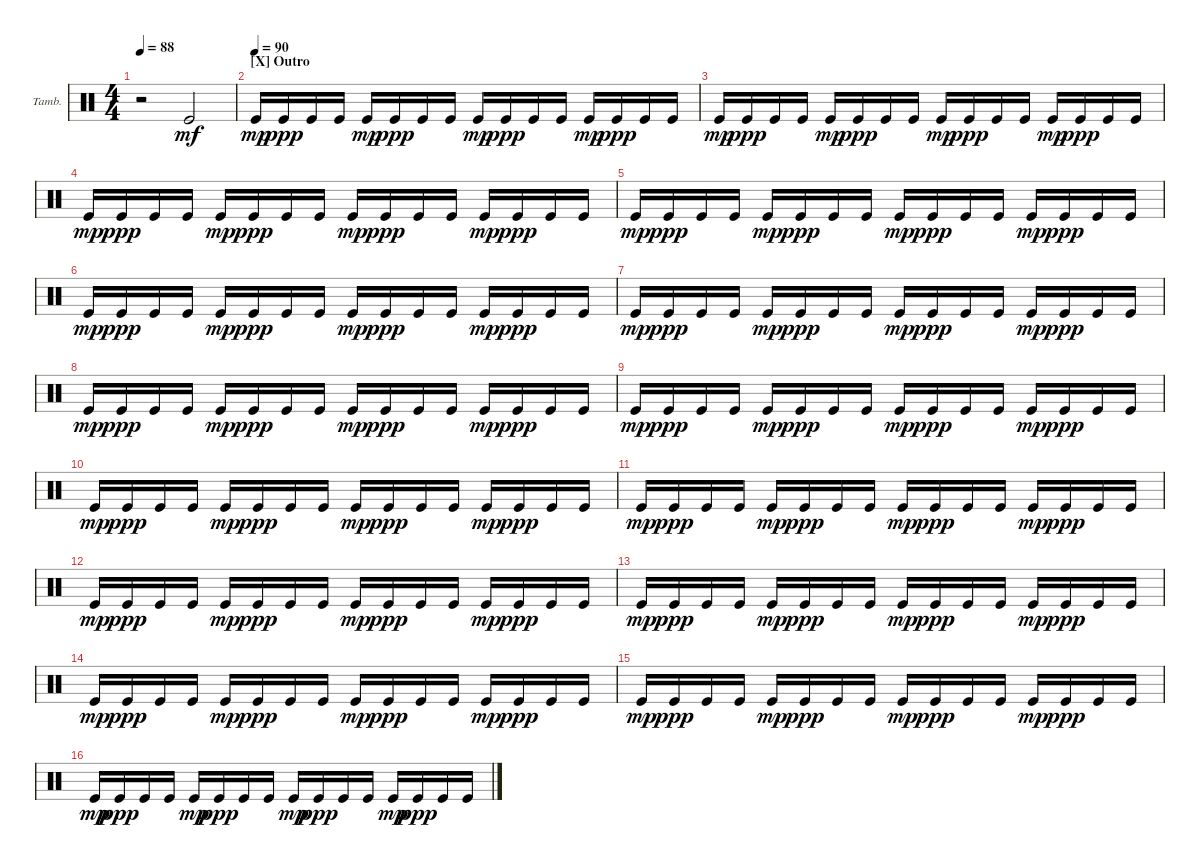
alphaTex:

\defaultSystemsLayout 4
\bracketExtendMode groupsimilarinstruments
\firstSystemTrackNameOrientation horizontal
\otherSystemsTrackNameOrientation horizontal
\track ("Tambourine" "Tamb.") {instrument percussion}
\staff {score}
\articulation defaults
\ts (4 4)
\tempo 88
\clef neutral
\ks c
r.2{dy mf} "Kick (hit)".2 |
\section ("X" "Outro")
\tempo (90)
"Kick (hit)".16{dy mp} "Kick (hit)".16{dy ppp} "Kick (hit)".16 "Kick (hit)".16 "Kick (hit)".16{dy mp} "Kick (hit)".16{dy ppp} "Kick (hit)".16 "Kick (hit)".16 "Kick (hit)".16{dy mp} "Kick (hit)".16{dy ppp} "Kick (hit)".16 "Kick (hit)".16 "Kick (hit)".16{dy mp} "Kick (hit)".16{dy ppp} "Kick (hit)".16 "Kick (hit)".16 |
"Kick (hit)".16{dy mp} "Kick (hit)".16{dy ppp} "Kick (hit)".16 "Kick (hit)".16 "Kick (hit)".16{dy mp} "Kick (hit)".16{dy ppp} "Kick (hit)".16 "Kick (hit)".16 "Kick (hit)".16{dy mp} "Kick (hit)".16{dy ppp} "Kick (hit)".16 "Kick (hit)".16 "Kick (hit)".16{dy mp} "Kick (hit)".16{dy ppp} "Kick (hit)".16 "Kick (hit)".16 |
"Kick (hit)".16{dy mp} "Kick (hit)".16{dy ppp} "Kick (hit)".16 "Kick (hit)".16 "Kick (hit)".16{dy mp} "Kick (hit)".16{dy ppp} "Kick (hit)".16 "Kick (hit)".16 "Kick (hit)".16{dy mp} "Kick (hit)".16{dy ppp} "Kick (hit)".16 "Kick (hit)".16 "Kick (hit)".16{dy mp} "Kick (hit)".16{dy ppp} "Kick (hit)".16 "Kick (hit)".16 |
"Kick (hit)".16{dy mp} "Kick (hit)".16{dy ppp} "Kick (hit)".16 "Kick (hit)".16 "Kick (hit)".16{dy mp} "Kick (hit)".16{dy ppp} "Kick (hit)".16 "Kick (hit)".16 "Kick (hit)".16{dy mp} "Kick (hit)".16{dy ppp} "Kick (hit)".16 "Kick (hit)".16 "Kick (hit)".16{dy mp} "Kick (hit)".16{dy ppp} "Kick (hit)".16 "Kick (hit)".16 |
"Kick (hit)".16{dy mp} "Kick (hit)".16{dy ppp} "Kick (hit)".16 "Kick (hit)".16 "Kick (hit)".16{dy mp} "Kick (hit)".16{dy ppp} "Kick (hit)".16 "Kick (hit)".16 "Kick (hit)".16{dy mp} "Kick (hit)".16{dy ppp} "Kick (hit)".16 "Kick (hit)".16 "Kick (hit)".16{dy mp} "Kick (hit)".16{dy ppp} "Kick (hit)".16 "Kick (hit)".16 |
"Kick (hit)".16{dy mp} "Kick (hit)".16{dy ppp} "Kick (hit)".16 "Kick (hit)".16 "Kick (hit)".16{dy mp} "Kick (hit)".16{dy ppp} "Kick (hit)".16 "Kick (hit)".16 "Kick (hit)".16{dy mp} "Kick (hit)".16{dy ppp} "Kick (hit)".16 "Kick (hit)".16 "Kick (hit)".16{dy mp} "Kick (hit)".16{dy ppp} "Kick (hit)".16 "Kick (hit)".16 |
"Kick (hit)".16{dy mp} "Kick (hit)".16{dy ppp} "Kick (hit)".16 "Kick (hit)".16 "Kick (hit)".16{dy mp} "Kick (hit)".16{dy ppp} "Kick (hit)".16 "Kick (hit)".16 "Kick (hit)".16{dy mp} "Kick (hit)".16{dy ppp} "Kick (hit)".16 "Kick (hit)".16 "Kick (hit)".16{dy mp} "Kick (hit)".16{dy ppp} "Kick (hit)".16 "Kick (hit)".16 |
"Kick (hit)".16{dy mp} "Kick (hit)".16{dy ppp} "Kick (hit)".16 "Kick (hit)".16 "Kick (hit)".16{dy mp} "Kick (hit)".16{dy ppp} "Kick (hit)".16 "Kick (hit)".16 "Kick (hit)".16{dy mp} "Kick (hit)".16{dy ppp} "Kick (hit)".16 "Kick (hit)".16 "Kick (hit)".16{dy mp} "Kick (hit)".16{dy ppp} "Kick (hit)".16 "Kick (hit)".16 |
"Kick (hit)".16{dy mp} "Kick (hit)".16{dy ppp} "Kick (hit)".16 "Kick (hit)".16 "Kick (hit)".16{dy mp} "Kick (hit)".16{dy ppp} "Kick (hit)".16 "Kick (hit)".16 "Kick (hit)".16{dy mp} "Kick (hit)".16{dy ppp} "Kick (hit)".16 "Kick (hit)".16 "Kick (hit)".16{dy mp} "Kick (hit)".16{dy ppp} "Kick (hit)".16 "Kick (hit)".16 |
"Kick (hit)".16{dy mp} "Kick (hit)".16{dy ppp} "Kick (hit)".16 "Kick (hit)".16 "Kick (hit)".16{dy mp} "Kick (hit)".16{dy ppp} "Kick (hit)".16 "Kick (hit)".16 "Kick (hit)".16{dy mp} "Kick (hit)".16{dy ppp} "Kick (hit)".16 "Kick (hit)".16 "Kick (hit)".16{dy mp} "Kick (hit)".16{dy ppp} "Kick (hit)".16 "Kick (hit)".16 |
"Kick (hit)".16{dy mp} "Kick (hit)".16{dy ppp} "Kick (hit)".16 "Kick (hit)".16 "Kick (hit)".16{dy mp} "Kick (hit)".16{dy ppp} "Kick (hit)".16 "Kick (hit)".16 "Kick (hit)".16{dy mp} "Kick (hit)".16{dy ppp} "Kick (hit)".16 "Kick (hit)".16 "Kick (hit)".16{dy mp} "Kick (hit)".16{dy ppp} "Kick (hit)".16 "Kick (hit)".16 |
"Kick (hit)".16{dy mp} "Kick (hit)".16{dy ppp} "Kick (hit)".16 "Kick (hit)".16 "Kick (hit)".16{dy mp} "Kick (hit)".16{dy ppp} "Kick (hit)".16 "Kick (hit)".16 "Kick (hit)".16{dy mp} "Kick (hit)".16{dy ppp} "Kick (hit)".16 "Kick (hit)".16 "Kick (hit)".16{dy mp} "Kick (hit)".16{dy ppp} "Kick (hit)".16 "Kick (hit)".16 |
"Kick (hit)".16{dy mp} "Kick (hit)".16{dy ppp} "Kick (hit)".16 "Kick (hit)".16 "Kick (hit)".16{dy mp} "Kick (hit)".16{dy ppp} "Kick (hit)".16 "Kick (hit)".16 "Kick (hit)".16{dy mp} "Kick (hit)".16{dy ppp} "Kick (hit)".16 "Kick (hit)".16 "Kick (hit)".16{dy mp} "Kick (hit)".16{dy ppp} "Kick (hit)".16 "Kick (hit)".16 |
"Kick (hit)".16{dy mp} "Kick (hit)".16{dy ppp} "Kick (hit)".16 "Kick (hit)".16 "Kick (hit)".16{dy mp} "Kick (hit)".16{dy ppp} "Kick (hit)".16 "Kick (hit)".16 "Kick (hit)".16{dy mp} "Kick (hit)".16{dy ppp} "Kick (hit)".16 "Kick (hit)".16 "Kick (hit)".16{dy mp} "Kick (hit)".16{dy ppp} "Kick (hit)".16 "Kick (hit)".16 |
"Kick (hit)".16{dy mp} "Kick (hit)".16{dy ppp} "Kick (hit)".16 "Kick (hit)".16 "Kick (hit)".16{dy mp} "Kick (hit)".16{dy ppp} "Kick (hit)".16 "Kick (hit)".16 "Kick (hit)".16{dy mp} "Kick (hit)".16{dy ppp} "Kick (hit)".16 "Kick (hit)".16 "Kick (hit)".16{dy mp} "Kick (hit)".16{dy ppp} "Kick (hit)".16 "Kick (hit)".16
